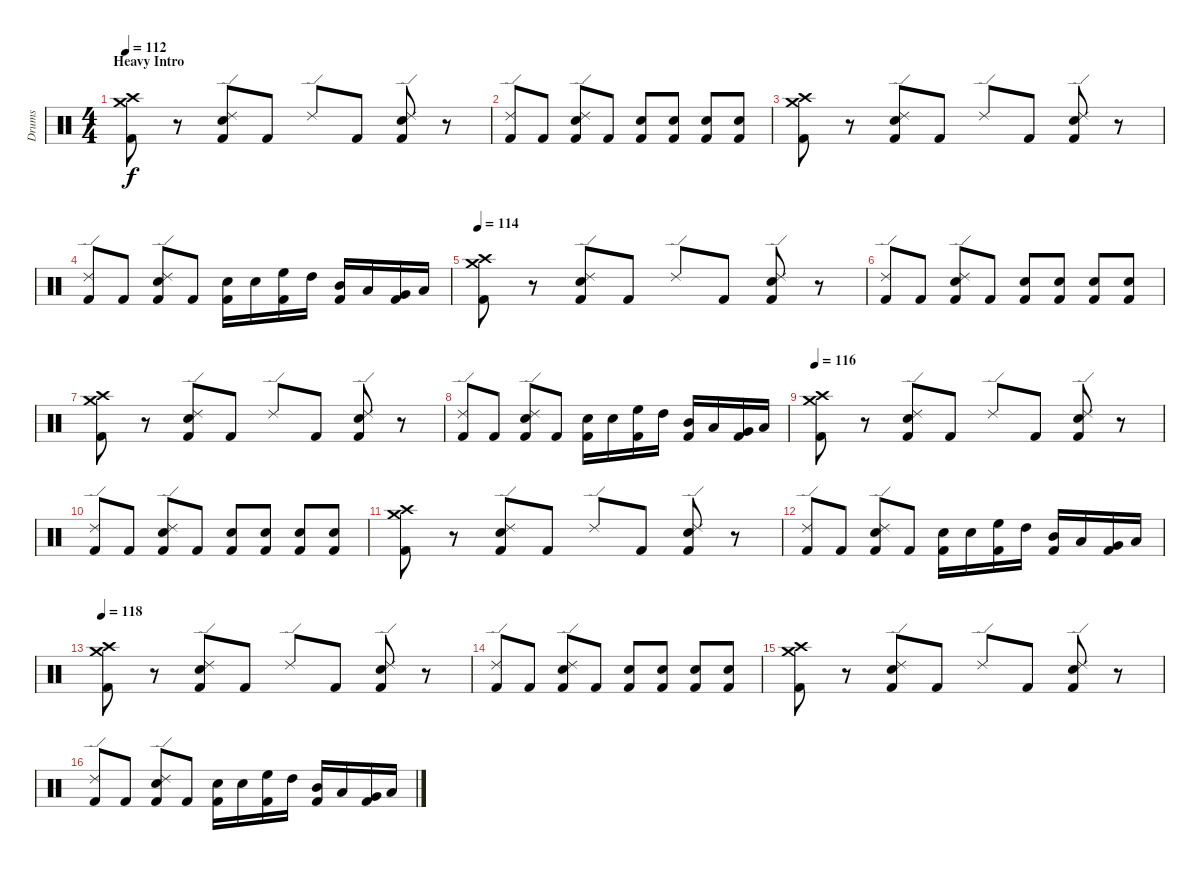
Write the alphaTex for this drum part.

\track ("Drums" "Drums") {instrument percussion}
\staff {score}
\articulation defaults
\ts (4 4)
\section ("" "Heavy Intro")
\tempo 110
\tempo 112
\clef neutral
\ks c
("Crash medium (hit)" "Crash high (hit)" "Kick (hit) 2").8{dy f} r.8 ("Ride (edge) 2" "Electric Snare (hit)" "Kick (hit) 2").8 "Kick (hit) 2".8 "Ride (edge) 2".8 "Kick (hit) 2".8 ("Ride (edge) 2" "Electric Snare (hit)" "Kick (hit) 2").8 r.8 |
("Ride (edge) 2" "Kick (hit) 2").8 "Kick (hit) 2".8 ("Ride (edge) 2" "Electric Snare (hit)" "Kick (hit) 2").8 "Kick (hit) 2".8 ("Electric Snare (hit)" "Kick (hit) 2").8 ("Electric Snare (hit)" "Kick (hit) 2").8 ("Electric Snare (hit)" "Kick (hit) 2").8 ("Electric Snare (hit)" "Kick (hit) 2").8 |
("Crash medium (hit)" "Crash high (hit)" "Kick (hit) 2").8 r.8 ("Ride (edge) 2" "Electric Snare (hit)" "Kick (hit) 2").8 "Kick (hit) 2".8 "Ride (edge) 2".8 "Kick (hit) 2".8 ("Ride (edge) 2" "Electric Snare (hit)" "Kick (hit) 2").8 r.8 |
("Ride (edge) 2" "Kick (hit) 2").8 "Kick (hit) 2".8 ("Ride (edge) 2" "Electric Snare (hit)" "Kick (hit) 2").8 "Kick (hit) 2".8 ("Electric Snare (hit)" "Kick (hit) 2").16 "Electric Snare (hit)".16 ("High Floor Tom (hit)" "Kick (hit) 2").16 "High Tom (hit)".16 ("Mid Tom (hit)" "Kick (hit) 2").16 "Low Tom (hit)".16 ("Very Low Tom (hit)" "Kick (hit) 2").16 "Low Floor Tom (hit)".16 |
\tempo 114
("Crash medium (hit)" "Crash high (hit)" "Kick (hit) 2").8 r.8 ("Ride (edge) 2" "Electric Snare (hit)" "Kick (hit) 2").8 "Kick (hit) 2".8 "Ride (edge) 2".8 "Kick (hit) 2".8 ("Ride (edge) 2" "Electric Snare (hit)" "Kick (hit) 2").8 r.8 |
("Ride (edge) 2" "Kick (hit) 2").8 "Kick (hit) 2".8 ("Ride (edge) 2" "Electric Snare (hit)" "Kick (hit) 2").8 "Kick (hit) 2".8 ("Electric Snare (hit)" "Kick (hit) 2").8 ("Electric Snare (hit)" "Kick (hit) 2").8 ("Electric Snare (hit)" "Kick (hit) 2").8 ("Electric Snare (hit)" "Kick (hit) 2").8 |
("Crash medium (hit)" "Crash high (hit)" "Kick (hit) 2").8 r.8 ("Ride (edge) 2" "Electric Snare (hit)" "Kick (hit) 2").8 "Kick (hit) 2".8 "Ride (edge) 2".8 "Kick (hit) 2".8 ("Ride (edge) 2" "Electric Snare (hit)" "Kick (hit) 2").8 r.8 |
("Ride (edge) 2" "Kick (hit) 2").8 "Kick (hit) 2".8 ("Ride (edge) 2" "Electric Snare (hit)" "Kick (hit) 2").8 "Kick (hit) 2".8 ("Electric Snare (hit)" "Kick (hit) 2").16 "Electric Snare (hit)".16 ("High Floor Tom (hit)" "Kick (hit) 2").16 "High Tom (hit)".16 ("Mid Tom (hit)" "Kick (hit) 2").16 "Low Tom (hit)".16 ("Very Low Tom (hit)" "Kick (hit) 2").16 "Low Floor Tom (hit)".16 |
\tempo 116
("Crash medium (hit)" "Crash high (hit)" "Kick (hit) 2").8 r.8 ("Ride (edge) 2" "Electric Snare (hit)" "Kick (hit) 2").8 "Kick (hit) 2".8 "Ride (edge) 2".8 "Kick (hit) 2".8 ("Ride (edge) 2" "Electric Snare (hit)" "Kick (hit) 2").8 r.8 |
("Ride (edge) 2" "Kick (hit) 2").8 "Kick (hit) 2".8 ("Ride (edge) 2" "Electric Snare (hit)" "Kick (hit) 2").8 "Kick (hit) 2".8 ("Electric Snare (hit)" "Kick (hit) 2").8 ("Electric Snare (hit)" "Kick (hit) 2").8 ("Electric Snare (hit)" "Kick (hit) 2").8 ("Electric Snare (hit)" "Kick (hit) 2").8 |
("Crash medium (hit)" "Crash high (hit)" "Kick (hit) 2").8 r.8 ("Ride (edge) 2" "Electric Snare (hit)" "Kick (hit) 2").8 "Kick (hit) 2".8 "Ride (edge) 2".8 "Kick (hit) 2".8 ("Ride (edge) 2" "Electric Snare (hit)" "Kick (hit) 2").8 r.8 |
("Ride (edge) 2" "Kick (hit) 2").8 "Kick (hit) 2".8 ("Ride (edge) 2" "Electric Snare (hit)" "Kick (hit) 2").8 "Kick (hit) 2".8 ("Electric Snare (hit)" "Kick (hit) 2").16 "Electric Snare (hit)".16 ("High Floor Tom (hit)" "Kick (hit) 2").16 "High Tom (hit)".16 ("Mid Tom (hit)" "Kick (hit) 2").16 "Low Tom (hit)".16 ("Very Low Tom (hit)" "Kick (hit) 2").16 "Low Floor Tom (hit)".16 |
\tempo 118
("Crash medium (hit)" "Crash high (hit)" "Kick (hit) 2").8 r.8 ("Ride (edge) 2" "Electric Snare (hit)" "Kick (hit) 2").8 "Kick (hit) 2".8 "Ride (edge) 2".8 "Kick (hit) 2".8 ("Ride (edge) 2" "Electric Snare (hit)" "Kick (hit) 2").8 r.8 |
("Ride (edge) 2" "Kick (hit) 2").8 "Kick (hit) 2".8 ("Ride (edge) 2" "Electric Snare (hit)" "Kick (hit) 2").8 "Kick (hit) 2".8 ("Electric Snare (hit)" "Kick (hit) 2").8 ("Electric Snare (hit)" "Kick (hit) 2").8 ("Electric Snare (hit)" "Kick (hit) 2").8 ("Electric Snare (hit)" "Kick (hit) 2").8 |
("Crash medium (hit)" "Crash high (hit)" "Kick (hit) 2").8 r.8 ("Ride (edge) 2" "Electric Snare (hit)" "Kick (hit) 2").8 "Kick (hit) 2".8 "Ride (edge) 2".8 "Kick (hit) 2".8 ("Ride (edge) 2" "Electric Snare (hit)" "Kick (hit) 2").8 r.8 |
("Ride (edge) 2" "Kick (hit) 2").8 "Kick (hit) 2".8 ("Ride (edge) 2" "Electric Snare (hit)" "Kick (hit) 2").8 "Kick (hit) 2".8 ("Electric Snare (hit)" "Kick (hit) 2").16 "Electric Snare (hit)".16 ("High Floor Tom (hit)" "Kick (hit) 2").16 "High Tom (hit)".16 ("Mid Tom (hit)" "Kick (hit) 2").16 "Low Tom (hit)".16 ("Very Low Tom (hit)" "Kick (hit) 2").16 "Low Floor Tom (hit)".16
